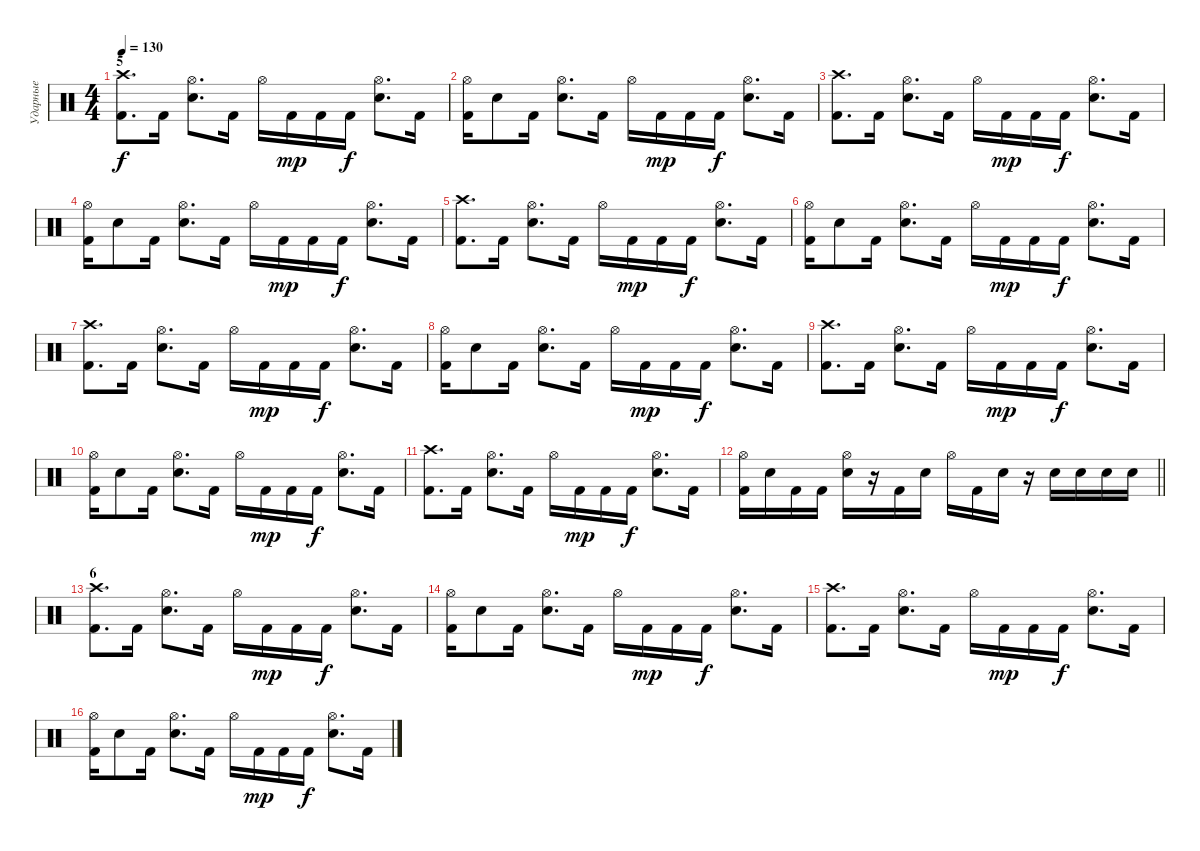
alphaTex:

\track ("Ударные" "Ударные") {instrument percussion}
\staff {score}
\articulation defaults
\ts (4 4)
\section ("" "5")
\tempo 130
\clef neutral
\ks c
("Kick (hit) 2" "Crash high (hit)").8{d dy f} "Kick (hit) 2".16 ("Electric Snare (hit)" "Hi-Hat (open)").8{d} "Kick (hit) 2".16 "Hi-Hat (open)".16 "Kick (hit) 2".16{dy mp} "Kick (hit) 2".16 "Kick (hit) 2".16{dy f} ("Electric Snare (hit)" "Hi-Hat (open)").8{d} "Kick (hit) 2".16 |
("Kick (hit) 2" "Hi-Hat (open)").16 "Electric Snare (hit)".8 "Kick (hit) 2".16 ("Electric Snare (hit)" "Hi-Hat (open)").8{d} "Kick (hit) 2".16 "Hi-Hat (open)".16 "Kick (hit) 2".16{dy mp} "Kick (hit) 2".16 "Kick (hit) 2".16{dy f} ("Electric Snare (hit)" "Hi-Hat (open)").8{d} "Kick (hit) 2".16 |
("Kick (hit) 2" "Crash high (hit)").8{d} "Kick (hit) 2".16 ("Electric Snare (hit)" "Hi-Hat (open)").8{d} "Kick (hit) 2".16 "Hi-Hat (open)".16 "Kick (hit) 2".16{dy mp} "Kick (hit) 2".16 "Kick (hit) 2".16{dy f} ("Electric Snare (hit)" "Hi-Hat (open)").8{d} "Kick (hit) 2".16 |
("Kick (hit) 2" "Hi-Hat (open)").16 "Electric Snare (hit)".8 "Kick (hit) 2".16 ("Electric Snare (hit)" "Hi-Hat (open)").8{d} "Kick (hit) 2".16 "Hi-Hat (open)".16 "Kick (hit) 2".16{dy mp} "Kick (hit) 2".16 "Kick (hit) 2".16{dy f} ("Electric Snare (hit)" "Hi-Hat (open)").8{d} "Kick (hit) 2".16 |
("Kick (hit) 2" "Crash high (hit)").8{d} "Kick (hit) 2".16 ("Electric Snare (hit)" "Hi-Hat (open)").8{d} "Kick (hit) 2".16 "Hi-Hat (open)".16 "Kick (hit) 2".16{dy mp} "Kick (hit) 2".16 "Kick (hit) 2".16{dy f} ("Electric Snare (hit)" "Hi-Hat (open)").8{d} "Kick (hit) 2".16 |
("Kick (hit) 2" "Hi-Hat (open)").16 "Electric Snare (hit)".8 "Kick (hit) 2".16 ("Electric Snare (hit)" "Hi-Hat (open)").8{d} "Kick (hit) 2".16 "Hi-Hat (open)".16 "Kick (hit) 2".16{dy mp} "Kick (hit) 2".16 "Kick (hit) 2".16{dy f} ("Electric Snare (hit)" "Hi-Hat (open)").8{d} "Kick (hit) 2".16 |
("Kick (hit) 2" "Crash high (hit)").8{d} "Kick (hit) 2".16 ("Electric Snare (hit)" "Hi-Hat (open)").8{d} "Kick (hit) 2".16 "Hi-Hat (open)".16 "Kick (hit) 2".16{dy mp} "Kick (hit) 2".16 "Kick (hit) 2".16{dy f} ("Electric Snare (hit)" "Hi-Hat (open)").8{d} "Kick (hit) 2".16 |
("Kick (hit) 2" "Hi-Hat (open)").16 "Electric Snare (hit)".8 "Kick (hit) 2".16 ("Electric Snare (hit)" "Hi-Hat (open)").8{d} "Kick (hit) 2".16 "Hi-Hat (open)".16 "Kick (hit) 2".16{dy mp} "Kick (hit) 2".16 "Kick (hit) 2".16{dy f} ("Electric Snare (hit)" "Hi-Hat (open)").8{d} "Kick (hit) 2".16 |
("Kick (hit) 2" "Crash high (hit)").8{d} "Kick (hit) 2".16 ("Electric Snare (hit)" "Hi-Hat (open)").8{d} "Kick (hit) 2".16 "Hi-Hat (open)".16 "Kick (hit) 2".16{dy mp} "Kick (hit) 2".16 "Kick (hit) 2".16{dy f} ("Electric Snare (hit)" "Hi-Hat (open)").8{d} "Kick (hit) 2".16 |
("Kick (hit) 2" "Hi-Hat (open)").16 "Electric Snare (hit)".8 "Kick (hit) 2".16 ("Electric Snare (hit)" "Hi-Hat (open)").8{d} "Kick (hit) 2".16 "Hi-Hat (open)".16 "Kick (hit) 2".16{dy mp} "Kick (hit) 2".16 "Kick (hit) 2".16{dy f} ("Electric Snare (hit)" "Hi-Hat (open)").8{d} "Kick (hit) 2".16 |
("Kick (hit) 2" "Crash high (hit)").8{d} "Kick (hit) 2".16 ("Electric Snare (hit)" "Hi-Hat (open)").8{d} "Kick (hit) 2".16 "Hi-Hat (open)".16 "Kick (hit) 2".16{dy mp} "Kick (hit) 2".16 "Kick (hit) 2".16{dy f} ("Electric Snare (hit)" "Hi-Hat (open)").8{d} "Kick (hit) 2".16 |
\barLineRight lightlight
("Kick (hit) 2" "Hi-Hat (open)").16 "Electric Snare (hit)".16 "Kick (hit) 2".16 "Kick (hit) 2".16 ("Electric Snare (hit)" "Hi-Hat (open)").16 r.16 "Kick (hit) 2".16 "Electric Snare (hit)".16 "Hi-Hat (open)".16 "Kick (hit) 2".16 "Electric Snare (hit)".16 r.16 "Electric Snare (hit)".16 "Electric Snare (hit)".16 "Electric Snare (hit)".16 "Electric Snare (hit)".16 |
\section ("" "6")
("Kick (hit) 2" "Crash high (hit)").8{d} "Kick (hit) 2".16 ("Electric Snare (hit)" "Hi-Hat (open)").8{d} "Kick (hit) 2".16 "Hi-Hat (open)".16 "Kick (hit) 2".16{dy mp} "Kick (hit) 2".16 "Kick (hit) 2".16{dy f} ("Electric Snare (hit)" "Hi-Hat (open)").8{d} "Kick (hit) 2".16 |
("Kick (hit) 2" "Hi-Hat (open)").16 "Electric Snare (hit)".8 "Kick (hit) 2".16 ("Electric Snare (hit)" "Hi-Hat (open)").8{d} "Kick (hit) 2".16 "Hi-Hat (open)".16 "Kick (hit) 2".16{dy mp} "Kick (hit) 2".16 "Kick (hit) 2".16{dy f} ("Electric Snare (hit)" "Hi-Hat (open)").8{d} "Kick (hit) 2".16 |
("Kick (hit) 2" "Crash high (hit)").8{d} "Kick (hit) 2".16 ("Electric Snare (hit)" "Hi-Hat (open)").8{d} "Kick (hit) 2".16 "Hi-Hat (open)".16 "Kick (hit) 2".16{dy mp} "Kick (hit) 2".16 "Kick (hit) 2".16{dy f} ("Electric Snare (hit)" "Hi-Hat (open)").8{d} "Kick (hit) 2".16 |
("Kick (hit) 2" "Hi-Hat (open)").16 "Electric Snare (hit)".8 "Kick (hit) 2".16 ("Electric Snare (hit)" "Hi-Hat (open)").8{d} "Kick (hit) 2".16 "Hi-Hat (open)".16 "Kick (hit) 2".16{dy mp} "Kick (hit) 2".16 "Kick (hit) 2".16{dy f} ("Electric Snare (hit)" "Hi-Hat (open)").8{d} "Kick (hit) 2".16
